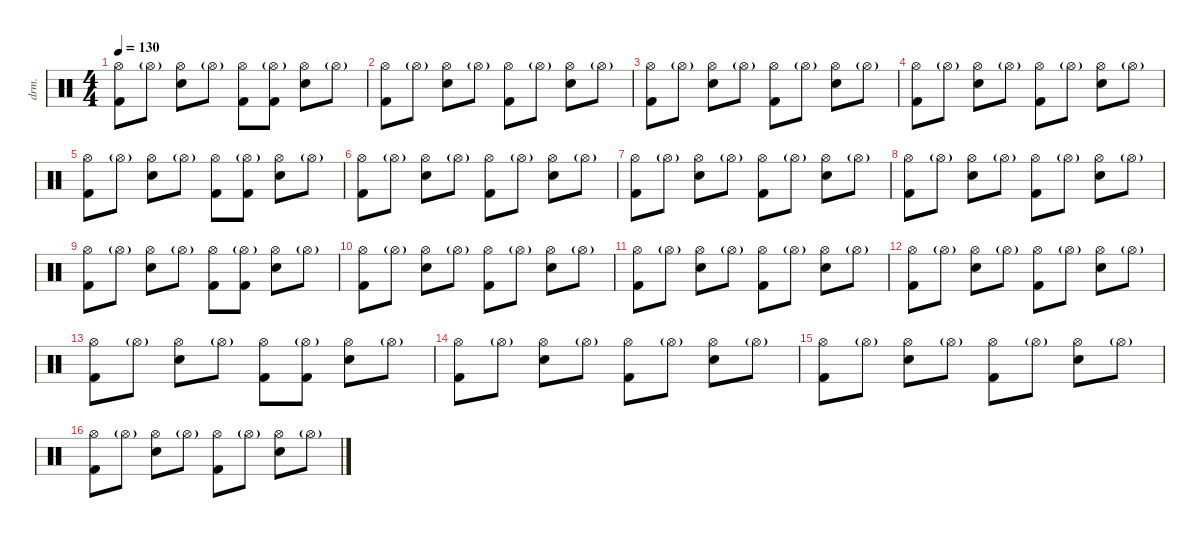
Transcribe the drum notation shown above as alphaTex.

\defaultSystemsLayout 4
\hideDynamics
\bracketExtendMode nobrackets
\otherSystemsTrackNameOrientation horizontal
\track ("Percussion" "drm.") {instrument percussion}
\staff {score}
\articulation defaults
\ts (4 4)
\tempo 130
\clef neutral
\ks c
("Hi-Hat (open)" "Kick (hit) 2").8{dy f} "Hi-Hat (open)"{g}.8 ("Hi-Hat (open)" "Snare (hit) 2").8 "Hi-Hat (open)"{g}.8 ("Hi-Hat (open)" "Kick (hit) 2").8 ("Hi-Hat (open)"{g} "Kick (hit) 2").8 ("Hi-Hat (open)" "Snare (hit) 2").8 "Hi-Hat (open)"{g}.8 |
("Hi-Hat (open)" "Kick (hit) 2").8 "Hi-Hat (open)"{g}.8 ("Hi-Hat (open)" "Snare (hit) 2").8 "Hi-Hat (open)"{g}.8 ("Hi-Hat (open)" "Kick (hit) 2").8 "Hi-Hat (open)"{g}.8 ("Hi-Hat (open)" "Snare (hit) 2").8 "Hi-Hat (open)"{g}.8 |
("Hi-Hat (open)" "Kick (hit) 2").8 "Hi-Hat (open)"{g}.8 ("Hi-Hat (open)" "Snare (hit) 2").8 "Hi-Hat (open)"{g}.8 ("Hi-Hat (open)" "Kick (hit) 2").8 "Hi-Hat (open)"{g}.8 ("Hi-Hat (open)" "Snare (hit) 2").8 "Hi-Hat (open)"{g}.8 |
("Hi-Hat (open)" "Kick (hit) 2").8 "Hi-Hat (open)"{g}.8 ("Hi-Hat (open)" "Snare (hit) 2").8 "Hi-Hat (open)"{g}.8 ("Hi-Hat (open)" "Kick (hit) 2").8 "Hi-Hat (open)"{g}.8 ("Hi-Hat (open)" "Snare (hit) 2").8 "Hi-Hat (open)"{g}.8 |
("Hi-Hat (open)" "Kick (hit) 2").8 "Hi-Hat (open)"{g}.8 ("Hi-Hat (open)" "Snare (hit) 2").8 "Hi-Hat (open)"{g}.8 ("Hi-Hat (open)" "Kick (hit) 2").8 ("Hi-Hat (open)"{g} "Kick (hit) 2").8 ("Hi-Hat (open)" "Snare (hit) 2").8 "Hi-Hat (open)"{g}.8 |
("Hi-Hat (open)" "Kick (hit) 2").8 "Hi-Hat (open)"{g}.8 ("Hi-Hat (open)" "Snare (hit) 2").8 "Hi-Hat (open)"{g}.8 ("Hi-Hat (open)" "Kick (hit) 2").8 "Hi-Hat (open)"{g}.8 ("Hi-Hat (open)" "Snare (hit) 2").8 "Hi-Hat (open)"{g}.8 |
("Hi-Hat (open)" "Kick (hit) 2").8 "Hi-Hat (open)"{g}.8 ("Hi-Hat (open)" "Snare (hit) 2").8 "Hi-Hat (open)"{g}.8 ("Hi-Hat (open)" "Kick (hit) 2").8 "Hi-Hat (open)"{g}.8 ("Hi-Hat (open)" "Snare (hit) 2").8 "Hi-Hat (open)"{g}.8 |
("Hi-Hat (open)" "Kick (hit) 2").8 "Hi-Hat (open)"{g}.8 ("Hi-Hat (open)" "Snare (hit) 2").8 "Hi-Hat (open)"{g}.8 ("Hi-Hat (open)" "Kick (hit) 2").8 "Hi-Hat (open)"{g}.8 ("Hi-Hat (open)" "Snare (hit) 2").8 "Hi-Hat (open)"{g}.8 |
("Hi-Hat (open)" "Kick (hit) 2").8 "Hi-Hat (open)"{g}.8 ("Hi-Hat (open)" "Snare (hit) 2").8 "Hi-Hat (open)"{g}.8 ("Hi-Hat (open)" "Kick (hit) 2").8 ("Hi-Hat (open)"{g} "Kick (hit) 2").8 ("Hi-Hat (open)" "Snare (hit) 2").8 "Hi-Hat (open)"{g}.8 |
("Hi-Hat (open)" "Kick (hit) 2").8 "Hi-Hat (open)"{g}.8 ("Hi-Hat (open)" "Snare (hit) 2").8 "Hi-Hat (open)"{g}.8 ("Hi-Hat (open)" "Kick (hit) 2").8 "Hi-Hat (open)"{g}.8 ("Hi-Hat (open)" "Snare (hit) 2").8 "Hi-Hat (open)"{g}.8 |
("Hi-Hat (open)" "Kick (hit) 2").8 "Hi-Hat (open)"{g}.8 ("Hi-Hat (open)" "Snare (hit) 2").8 "Hi-Hat (open)"{g}.8 ("Hi-Hat (open)" "Kick (hit) 2").8 "Hi-Hat (open)"{g}.8 ("Hi-Hat (open)" "Snare (hit) 2").8 "Hi-Hat (open)"{g}.8 |
("Hi-Hat (open)" "Kick (hit) 2").8 "Hi-Hat (open)"{g}.8 ("Hi-Hat (open)" "Snare (hit) 2").8 "Hi-Hat (open)"{g}.8 ("Hi-Hat (open)" "Kick (hit) 2").8 "Hi-Hat (open)"{g}.8 ("Hi-Hat (open)" "Snare (hit) 2").8 "Hi-Hat (open)"{g}.8 |
("Hi-Hat (open)" "Kick (hit) 2").8 "Hi-Hat (open)"{g}.8 ("Hi-Hat (open)" "Snare (hit) 2").8 "Hi-Hat (open)"{g}.8 ("Hi-Hat (open)" "Kick (hit) 2").8 ("Hi-Hat (open)"{g} "Kick (hit) 2").8 ("Hi-Hat (open)" "Snare (hit) 2").8 "Hi-Hat (open)"{g}.8 |
("Hi-Hat (open)" "Kick (hit) 2").8 "Hi-Hat (open)"{g}.8 ("Hi-Hat (open)" "Snare (hit) 2").8 "Hi-Hat (open)"{g}.8 ("Hi-Hat (open)" "Kick (hit) 2").8 "Hi-Hat (open)"{g}.8 ("Hi-Hat (open)" "Snare (hit) 2").8 "Hi-Hat (open)"{g}.8 |
("Hi-Hat (open)" "Kick (hit) 2").8 "Hi-Hat (open)"{g}.8 ("Hi-Hat (open)" "Snare (hit) 2").8 "Hi-Hat (open)"{g}.8 ("Hi-Hat (open)" "Kick (hit) 2").8 "Hi-Hat (open)"{g}.8 ("Hi-Hat (open)" "Snare (hit) 2").8 "Hi-Hat (open)"{g}.8 |
("Hi-Hat (open)" "Kick (hit) 2").8 "Hi-Hat (open)"{g}.8 ("Hi-Hat (open)" "Snare (hit) 2").8 "Hi-Hat (open)"{g}.8 ("Hi-Hat (open)" "Kick (hit) 2").8 "Hi-Hat (open)"{g}.8 ("Hi-Hat (open)" "Snare (hit) 2").8 "Hi-Hat (open)"{g}.8
